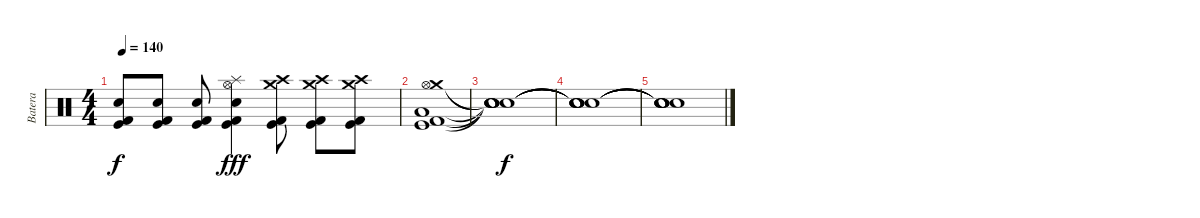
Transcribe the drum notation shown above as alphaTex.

\track ("Batera" "Batera") {instrument percussion}
\staff {score}
\articulation defaults
\ts (4 4)
\tempo 140
\clef neutral
\ks c
("Kick (hit)" "Electric Snare (hit)" "Kick (hit) 2").8{dy f} ("Kick (hit)" "Electric Snare (hit)" "Kick (hit) 2").8 ("Kick (hit)" "Electric Snare (hit)" "Kick (hit) 2").8 ("Hi-Hat (open)" "Kick (hit)" "Electric Snare (hit)" "Splash (hit)" "Kick (hit) 2").4{dy fff} ("Kick (hit)" "Crash medium (hit)" "Crash high (hit)" "Kick (hit) 2").8 ("Kick (hit)" "Crash medium (hit)" "Crash high (hit)" "Kick (hit) 2").8 ("Kick (hit)" "Crash medium (hit)" "Crash high (hit)" "Kick (hit) 2").8 |
("Hi-Hat (open)" "Kick (hit)" "Crash medium (hit)" "Low Floor Tom (hit)" "Kick (hit) 2").1{volume 7} |
("Snare (hit)"{t} "Snare (hit)"{t} "Snare (hit)"{t} "Snare (hit)"{t} "Snare (hit)"{t}).1{dy f} |
("Snare (hit)"{t} "Snare (hit)"{t} "Snare (hit)"{t} "Snare (hit)"{t} "Snare (hit)"{t}).1{volume 0} |
("Snare (hit)"{t} "Snare (hit)"{t} "Snare (hit)"{t} "Snare (hit)"{t} "Snare (hit)"{t}).1
